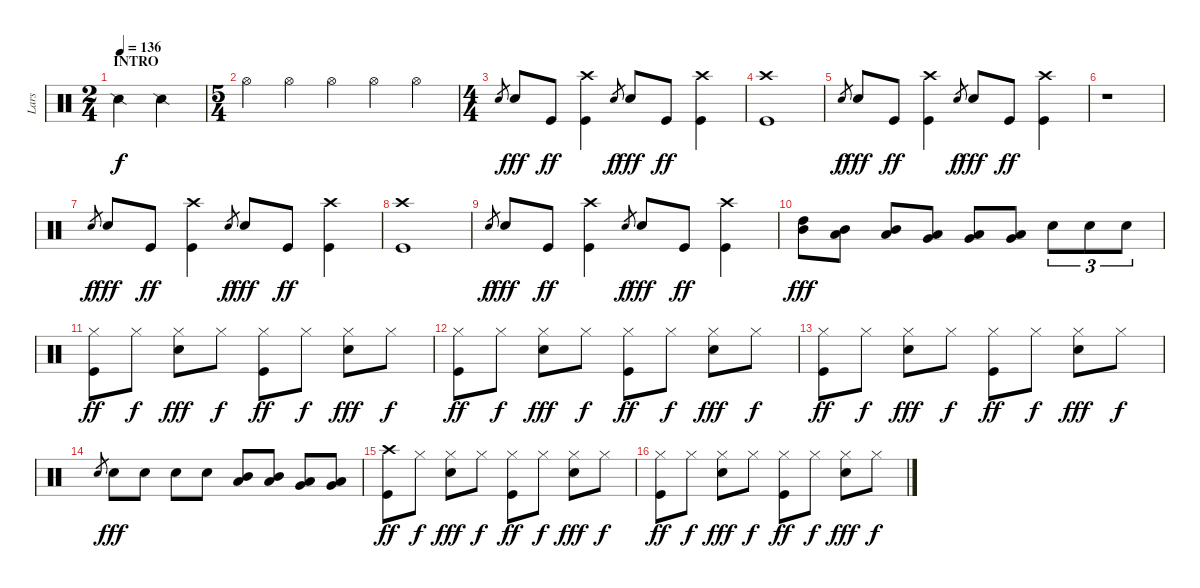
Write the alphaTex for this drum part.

\track ("Lars" "Lars") {instrument percussion}
\staff {score}
\articulation defaults
\ts (2 4)
\section ("" "INTRO")
\tempo 136
\clef neutral
\ks c "Snare (side stick) 2".4{dy f} "Snare (side stick) 2".4
|
\ts (5 4)
"Hi-Hat (open)".4 "Hi-Hat (open)".4 "Hi-Hat (open)".4 "Hi-Hat (open)".4 "Hi-Hat (open)".4 |
\ts (4 4)
"Electric Snare (hit)".8{gr} "Electric Snare (hit)".8{dy fff} "Kick (hit)".8{dy ff} ("Crash high (hit)" "Kick (hit)").4 "Electric Snare (hit)".8{gr dy f} "Electric Snare (hit)".8{dy fff} "Kick (hit)".8{dy ff} ("Crash high (hit)" "Kick (hit)").4 |
("Crash high (hit)" "Kick (hit)").1 |
"Electric Snare (hit)".8{gr dy f} "Electric Snare (hit)".8{dy fff} "Kick (hit)".8{dy ff} ("Crash high (hit)" "Kick (hit)").4 "Electric Snare (hit)".8{gr dy f} "Electric Snare (hit)".8{dy fff} "Kick (hit)".8{dy ff} ("Crash high (hit)" "Kick (hit)").4 |
r.1 |
"Electric Snare (hit)".8{gr dy f} "Electric Snare (hit)".8{dy fff} "Kick (hit)".8{dy ff} ("Crash high (hit)" "Kick (hit)").4 "Electric Snare (hit)".8{gr dy f} "Electric Snare (hit)".8{dy fff} "Kick (hit)".8{dy ff} ("Crash high (hit)" "Kick (hit)").4 |
("Crash high (hit)" "Kick (hit)").1 |
"Electric Snare (hit)".8{gr dy f} "Electric Snare (hit)".8{dy fff} "Kick (hit)".8{dy ff} ("Crash high (hit)" "Kick (hit)").4 "Electric Snare (hit)".8{gr dy f} "Electric Snare (hit)".8{dy fff} "Kick (hit)".8{dy ff} ("Crash high (hit)" "Kick (hit)").4 |
("High Tom (hit)" "Mid Tom (hit)").8{dy fff} ("Mid Tom (hit)" "Low Tom (hit)").8 ("Mid Tom (hit)" "Low Tom (hit)").8 ("Low Tom (hit)" "Very Low Tom (hit)").8 ("Low Tom (hit)" "Very Low Tom (hit)").8 ("Very Low Tom (hit)" "Low Floor Tom (hit)").8 "Electric Snare (hit)".8{tu (3 2)} "Electric Snare (hit)".8{tu (3 2)} "Electric Snare (hit)".8{tu (3 2)} |
("Hi-Hat (closed)" "Kick (hit)").8{dy ff} "Hi-Hat (closed)".8{dy f} ("Hi-Hat (closed)" "Electric Snare (hit)").8{dy fff} "Hi-Hat (closed)".8{dy f} ("Hi-Hat (closed)" "Kick (hit)").8{dy ff} "Hi-Hat (closed)".8{dy f} ("Hi-Hat (closed)" "Electric Snare (hit)").8{dy fff} "Hi-Hat (closed)".8{dy f} |
("Hi-Hat (closed)" "Kick (hit)").8{dy ff} "Hi-Hat (closed)".8{dy f} ("Hi-Hat (closed)" "Electric Snare (hit)").8{dy fff} "Hi-Hat (closed)".8{dy f} ("Hi-Hat (closed)" "Kick (hit)").8{dy ff} "Hi-Hat (closed)".8{dy f} ("Hi-Hat (closed)" "Electric Snare (hit)").8{dy fff} "Hi-Hat (closed)".8{dy f} |
("Hi-Hat (closed)" "Kick (hit)").8{dy ff} "Hi-Hat (closed)".8{dy f} ("Hi-Hat (closed)" "Electric Snare (hit)").8{dy fff} "Hi-Hat (closed)".8{dy f} ("Hi-Hat (closed)" "Kick (hit)").8{dy ff} "Hi-Hat (closed)".8{dy f} ("Hi-Hat (closed)" "Electric Snare (hit)").8{dy fff} "Hi-Hat (closed)".8{dy f} |
"Electric Snare (hit)".8{gr} "Electric Snare (hit)".8{dy fff} "Electric Snare (hit)".8 "Electric Snare (hit)".8 "Electric Snare (hit)".8 ("Mid Tom (hit)" "Low Tom (hit)").8 ("Mid Tom (hit)" "Low Tom (hit)").8 ("Low Tom (hit)" "Very Low Tom (hit)").8 ("Low Tom (hit)" "Very Low Tom (hit)").8 |
("Crash high (hit)" "Kick (hit)").8{dy ff} "Hi-Hat (closed)".8{dy f} ("Hi-Hat (closed)" "Electric Snare (hit)").8{dy fff} "Hi-Hat (closed)".8{dy f} ("Hi-Hat (closed)" "Kick (hit)").8{dy ff} "Hi-Hat (closed)".8{dy f} ("Hi-Hat (closed)" "Electric Snare (hit)").8{dy fff} "Hi-Hat (closed)".8{dy f} |
("Hi-Hat (closed)" "Kick (hit)").8{dy ff} "Hi-Hat (closed)".8{dy f} ("Hi-Hat (closed)" "Electric Snare (hit)").8{dy fff} "Hi-Hat (closed)".8{dy f} ("Hi-Hat (closed)" "Kick (hit)").8{dy ff} "Hi-Hat (closed)".8{dy f} ("Hi-Hat (closed)" "Electric Snare (hit)").8{dy fff} "Hi-Hat (closed)".8{dy f}
